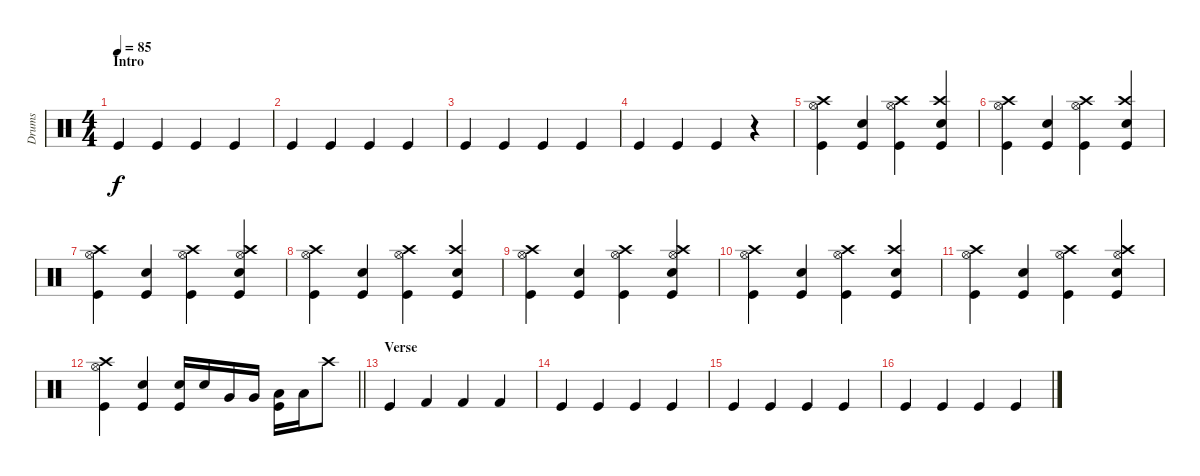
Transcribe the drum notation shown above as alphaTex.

\track ("Drums" "Drums") {instrument percussion}
\staff {score}
\articulation defaults
\ts (4 4)
\section ("" "Intro")
\tempo 85
\clef neutral
\ks c "Kick (hit)".4{dy f} "Kick (hit)".4 "Kick (hit)".4 "Kick (hit)".4
|
"Kick (hit)".4 "Kick (hit)".4 "Kick (hit)".4 "Kick (hit)".4 |
"Kick (hit)".4 "Kick (hit)".4 "Kick (hit)".4 "Kick (hit)".4 |
"Kick (hit)".4 "Kick (hit)".4 "Kick (hit)".4 r.4 |
("Crash high (hit)" "Hi-Hat (open)" "Kick (hit)").4 ("Snare (hit) 2" "Kick (hit)").4 ("Crash high (hit)" "Hi-Hat (open)" "Kick (hit)").4 ("Crash high (hit)" "Snare (hit) 2" "Kick (hit)").4 |
("Crash high (hit)" "Hi-Hat (open)" "Kick (hit)").4 ("Snare (hit) 2" "Kick (hit)").4 ("Crash high (hit)" "Hi-Hat (open)" "Kick (hit)").4 ("Crash high (hit)" "Snare (hit) 2" "Kick (hit)").4 |
("Crash high (hit)" "Hi-Hat (open)" "Kick (hit)").4 ("Snare (hit) 2" "Kick (hit)").4 ("Crash high (hit)" "Hi-Hat (open)" "Kick (hit)").4 ("Crash high (hit)" "Hi-Hat (open)" "Snare (hit) 2" "Kick (hit)").4 |
("Crash high (hit)" "Hi-Hat (open)" "Kick (hit)").4 ("Snare (hit) 2" "Kick (hit)").4 ("Crash high (hit)" "Hi-Hat (open)" "Kick (hit)").4 ("Crash high (hit)" "Snare (hit) 2" "Kick (hit)").4 |
("Crash high (hit)" "Hi-Hat (open)" "Kick (hit)").4 ("Snare (hit) 2" "Kick (hit)").4 ("Crash high (hit)" "Hi-Hat (open)" "Kick (hit)").4 ("Crash high (hit)" "Hi-Hat (open)" "Snare (hit) 2" "Kick (hit)").4 |
("Crash high (hit)" "Hi-Hat (open)" "Kick (hit)").4 ("Snare (hit) 2" "Kick (hit)").4 ("Crash high (hit)" "Hi-Hat (open)" "Kick (hit)").4 ("Crash high (hit)" "Snare (hit) 2" "Kick (hit)").4 |
("Crash high (hit)" "Hi-Hat (open)" "Kick (hit)").4 ("Snare (hit) 2" "Kick (hit)").4 ("Crash high (hit)" "Hi-Hat (open)" "Kick (hit)").4 ("Crash high (hit)" "Hi-Hat (open)" "Snare (hit) 2" "Kick (hit)").4 |
\barLineRight lightlight
("Crash high (hit)" "Hi-Hat (open)" "Kick (hit)").4 ("Snare (hit) 2" "Kick (hit)").4 ("Snare (hit) 2" "Kick (hit)").16 "Snare (hit) 2".16 "Very Low Tom (hit)".16 "Very Low Tom (hit)".16 ("Low Tom (hit)" "Kick (hit)").16 "Low Tom (hit)".16 "Crash high (hit)".8 |
\section ("" "Verse")
"Kick (hit)".4 "Kick (hit) 2".4 "Kick (hit) 2".4 "Kick (hit) 2".4 |
"Kick (hit)".4 "Kick (hit)".4 "Kick (hit)".4 "Kick (hit)".4 |
"Kick (hit)".4 "Kick (hit)".4 "Kick (hit)".4 "Kick (hit)".4 |
"Kick (hit)".4 "Kick (hit)".4 "Kick (hit)".4 "Kick (hit)".4
